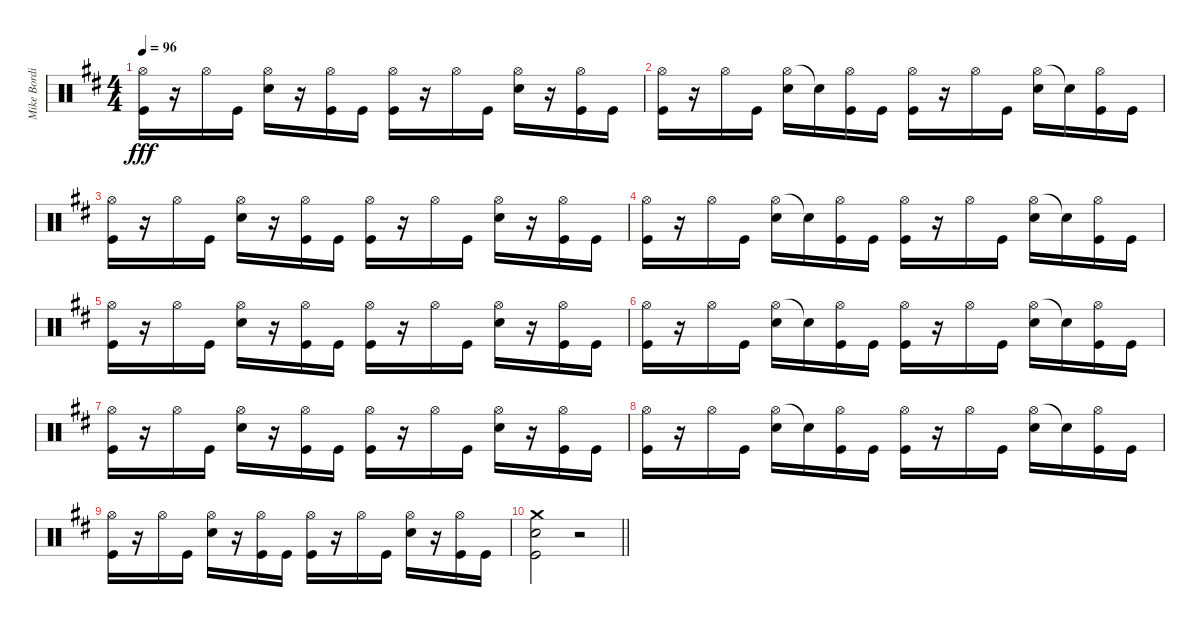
\track ("Mike Bordin" "Mike Bordi") {instrument percussion}
\staff {score}
\articulation defaults
\ts (4 4)
\tempo 96
\clef neutral
\ks d
("Hi-Hat (open)" "Kick (hit)").16{dy fff} r.16 "Hi-Hat (open)".16 "Kick (hit)".16 ("Hi-Hat (open)" "Electric Snare (hit)").16 r.16 ("Hi-Hat (open)" "Kick (hit)").16 "Kick (hit)".16 ("Hi-Hat (open)" "Kick (hit)").16 r.16 "Hi-Hat (open)".16 "Kick (hit)".16 ("Hi-Hat (open)" "Electric Snare (hit)").16 r.16 ("Hi-Hat (open)" "Kick (hit)").16 "Kick (hit)".16 |
("Hi-Hat (open)" "Kick (hit)").16 r.16 "Hi-Hat (open)".16 "Kick (hit)".16 ("Hi-Hat (open)" "Electric Snare (hit)").16 "Snare (hit)"{t}.16 ("Hi-Hat (open)" "Kick (hit)").16 "Kick (hit)".16 ("Hi-Hat (open)" "Kick (hit)").16 r.16 "Hi-Hat (open)".16 "Kick (hit)".16 ("Hi-Hat (open)" "Electric Snare (hit)").16 "Snare (hit)"{t}.16 ("Hi-Hat (open)" "Kick (hit)").16 "Kick (hit)".16 |
("Hi-Hat (open)" "Kick (hit)").16 r.16 "Hi-Hat (open)".16 "Kick (hit)".16 ("Hi-Hat (open)" "Electric Snare (hit)").16 r.16 ("Hi-Hat (open)" "Kick (hit)").16 "Kick (hit)".16 ("Hi-Hat (open)" "Kick (hit)").16 r.16 "Hi-Hat (open)".16 "Kick (hit)".16 ("Hi-Hat (open)" "Electric Snare (hit)").16 r.16 ("Hi-Hat (open)" "Kick (hit)").16 "Kick (hit)".16 |
("Hi-Hat (open)" "Kick (hit)").16 r.16 "Hi-Hat (open)".16 "Kick (hit)".16 ("Hi-Hat (open)" "Electric Snare (hit)").16 "Snare (hit)"{t}.16 ("Hi-Hat (open)" "Kick (hit)").16 "Kick (hit)".16 ("Hi-Hat (open)" "Kick (hit)").16 r.16 "Hi-Hat (open)".16 "Kick (hit)".16 ("Hi-Hat (open)" "Electric Snare (hit)").16 "Snare (hit)"{t}.16 ("Hi-Hat (open)" "Kick (hit)").16 "Kick (hit)".16 |
("Hi-Hat (open)" "Kick (hit)").16 r.16 "Hi-Hat (open)".16 "Kick (hit)".16 ("Hi-Hat (open)" "Electric Snare (hit)").16 r.16 ("Hi-Hat (open)" "Kick (hit)").16 "Kick (hit)".16 ("Hi-Hat (open)" "Kick (hit)").16 r.16 "Hi-Hat (open)".16 "Kick (hit)".16 ("Hi-Hat (open)" "Electric Snare (hit)").16 r.16 ("Hi-Hat (open)" "Kick (hit)").16 "Kick (hit)".16 |
("Hi-Hat (open)" "Kick (hit)").16 r.16 "Hi-Hat (open)".16 "Kick (hit)".16 ("Hi-Hat (open)" "Electric Snare (hit)").16 "Snare (hit)"{t}.16 ("Hi-Hat (open)" "Kick (hit)").16 "Kick (hit)".16 ("Hi-Hat (open)" "Kick (hit)").16 r.16 "Hi-Hat (open)".16 "Kick (hit)".16 ("Hi-Hat (open)" "Electric Snare (hit)").16 "Snare (hit)"{t}.16 ("Hi-Hat (open)" "Kick (hit)").16 "Kick (hit)".16 |
("Hi-Hat (open)" "Kick (hit)").16 r.16 "Hi-Hat (open)".16 "Kick (hit)".16 ("Hi-Hat (open)" "Electric Snare (hit)").16 r.16 ("Hi-Hat (open)" "Kick (hit)").16 "Kick (hit)".16 ("Hi-Hat (open)" "Kick (hit)").16 r.16 "Hi-Hat (open)".16 "Kick (hit)".16 ("Hi-Hat (open)" "Electric Snare (hit)").16 r.16 ("Hi-Hat (open)" "Kick (hit)").16 "Kick (hit)".16 |
("Hi-Hat (open)" "Kick (hit)").16 r.16 "Hi-Hat (open)".16 "Kick (hit)".16 ("Hi-Hat (open)" "Electric Snare (hit)").16 "Snare (hit)"{t}.16 ("Hi-Hat (open)" "Kick (hit)").16 "Kick (hit)".16 ("Hi-Hat (open)" "Kick (hit)").16 r.16 "Hi-Hat (open)".16 "Kick (hit)".16 ("Hi-Hat (open)" "Electric Snare (hit)").16 "Snare (hit)"{t}.16 ("Hi-Hat (open)" "Kick (hit)").16 "Kick (hit)".16 |
("Hi-Hat (open)" "Kick (hit)").16 r.16 "Hi-Hat (open)".16 "Kick (hit)".16 ("Hi-Hat (open)" "Electric Snare (hit)").16 r.16 ("Hi-Hat (open)" "Kick (hit)").16 "Kick (hit)".16 ("Hi-Hat (open)" "Kick (hit)").16 r.16 "Hi-Hat (open)".16 "Kick (hit)".16 ("Hi-Hat (open)" "Electric Snare (hit)").16 r.16 ("Hi-Hat (open)" "Kick (hit)").16 "Kick (hit)".16 |
\barLineRight lightlight
("Crash medium (hit)" "Electric Snare (hit)" "Kick (hit)").2 r.2
